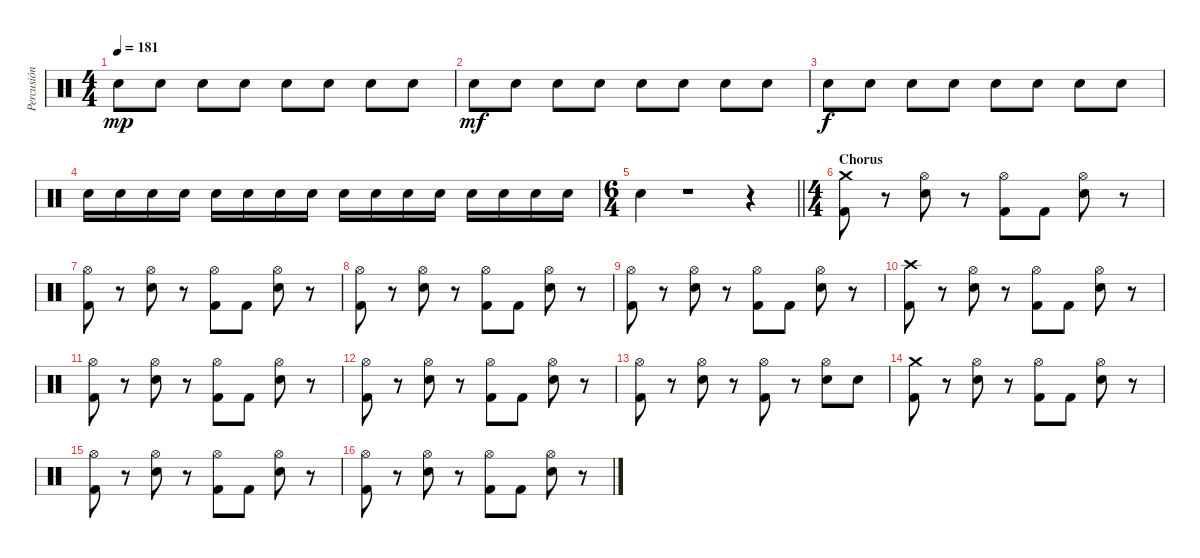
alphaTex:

\track ("Percusión" "Percusión") {instrument percussion}
\staff {score}
\articulation defaults
\ts (4 4)
\tempo 181
\clef neutral
\ks c "Electric Snare (hit)".8{dy mp} "Electric Snare (hit)".8 "Electric Snare (hit)".8 "Electric Snare (hit)".8 "Electric Snare (hit)".8 "Electric Snare (hit)".8 "Electric Snare (hit)".8 "Electric Snare (hit)".8
|
"Electric Snare (hit)".8{dy mf} "Electric Snare (hit)".8 "Electric Snare (hit)".8 "Electric Snare (hit)".8 "Electric Snare (hit)".8 "Electric Snare (hit)".8 "Electric Snare (hit)".8 "Electric Snare (hit)".8 |
"Electric Snare (hit)".8{dy f} "Electric Snare (hit)".8 "Electric Snare (hit)".8 "Electric Snare (hit)".8 "Electric Snare (hit)".8 "Electric Snare (hit)".8 "Electric Snare (hit)".8 "Electric Snare (hit)".8 |
"Electric Snare (hit)".16 "Electric Snare (hit)".16 "Electric Snare (hit)".16 "Electric Snare (hit)".16 "Electric Snare (hit)".16 "Electric Snare (hit)".16 "Electric Snare (hit)".16 "Electric Snare (hit)".16 "Electric Snare (hit)".16 "Electric Snare (hit)".16 "Electric Snare (hit)".16 "Electric Snare (hit)".16 "Electric Snare (hit)".16 "Electric Snare (hit)".16 "Electric Snare (hit)".16 "Electric Snare (hit)".16 |
\ts (6 4)
\barLineRight lightlight "Electric Snare (hit)".4
r.1 r.4 |
\ts (4 4)
\section ("" "Chorus")
("Crash medium (hit)" "Kick (hit) 2").8 r.8 ("Hi-Hat (open)" "Electric Snare (hit)").8 r.8 ("Hi-Hat (open)" "Kick (hit) 2").8 "Kick (hit) 2".8 ("Hi-Hat (open)" "Electric Snare (hit)").8 r.8 |
("Hi-Hat (open)" "Kick (hit) 2").8 r.8 ("Hi-Hat (open)" "Electric Snare (hit)").8 r.8 ("Hi-Hat (open)" "Kick (hit) 2").8 "Kick (hit) 2".8 ("Hi-Hat (open)" "Electric Snare (hit)").8 r.8 |
("Hi-Hat (open)" "Kick (hit) 2").8 r.8 ("Hi-Hat (open)" "Electric Snare (hit)").8 r.8 ("Hi-Hat (open)" "Kick (hit) 2").8 "Kick (hit) 2".8 ("Hi-Hat (open)" "Electric Snare (hit)").8 r.8 |
("Hi-Hat (open)" "Kick (hit) 2").8 r.8 ("Hi-Hat (open)" "Electric Snare (hit)").8 r.8 ("Hi-Hat (open)" "Kick (hit) 2").8 "Kick (hit) 2".8 ("Hi-Hat (open)" "Electric Snare (hit)").8 r.8 |
("Crash high (hit)" "Kick (hit) 2").8 r.8 ("Hi-Hat (open)" "Electric Snare (hit)").8 r.8 ("Hi-Hat (open)" "Kick (hit) 2").8 "Kick (hit) 2".8 ("Hi-Hat (open)" "Electric Snare (hit)").8 r.8 |
("Hi-Hat (open)" "Kick (hit) 2").8 r.8 ("Hi-Hat (open)" "Electric Snare (hit)").8 r.8 ("Hi-Hat (open)" "Kick (hit) 2").8 "Kick (hit) 2".8 ("Hi-Hat (open)" "Electric Snare (hit)").8 r.8 |
("Hi-Hat (open)" "Kick (hit) 2").8 r.8 ("Hi-Hat (open)" "Electric Snare (hit)").8 r.8 ("Hi-Hat (open)" "Kick (hit) 2").8 "Kick (hit) 2".8 ("Hi-Hat (open)" "Electric Snare (hit)").8 r.8 |
("Hi-Hat (open)" "Kick (hit) 2").8 r.8 ("Hi-Hat (open)" "Electric Snare (hit)").8 r.8 ("Hi-Hat (open)" "Kick (hit) 2").8 r.8 ("Hi-Hat (open)" "Electric Snare (hit)").8 "Electric Snare (hit)".8 |
("Crash medium (hit)" "Kick (hit) 2").8 r.8 ("Hi-Hat (open)" "Electric Snare (hit)").8 r.8 ("Hi-Hat (open)" "Kick (hit) 2").8 "Kick (hit) 2".8 ("Hi-Hat (open)" "Electric Snare (hit)").8 r.8 |
("Hi-Hat (open)" "Kick (hit) 2").8 r.8 ("Hi-Hat (open)" "Electric Snare (hit)").8 r.8 ("Hi-Hat (open)" "Kick (hit) 2").8 "Kick (hit) 2".8 ("Hi-Hat (open)" "Electric Snare (hit)").8 r.8 |
("Hi-Hat (open)" "Kick (hit) 2").8 r.8 ("Hi-Hat (open)" "Electric Snare (hit)").8 r.8 ("Hi-Hat (open)" "Kick (hit) 2").8 "Kick (hit) 2".8 ("Hi-Hat (open)" "Electric Snare (hit)").8 r.8
